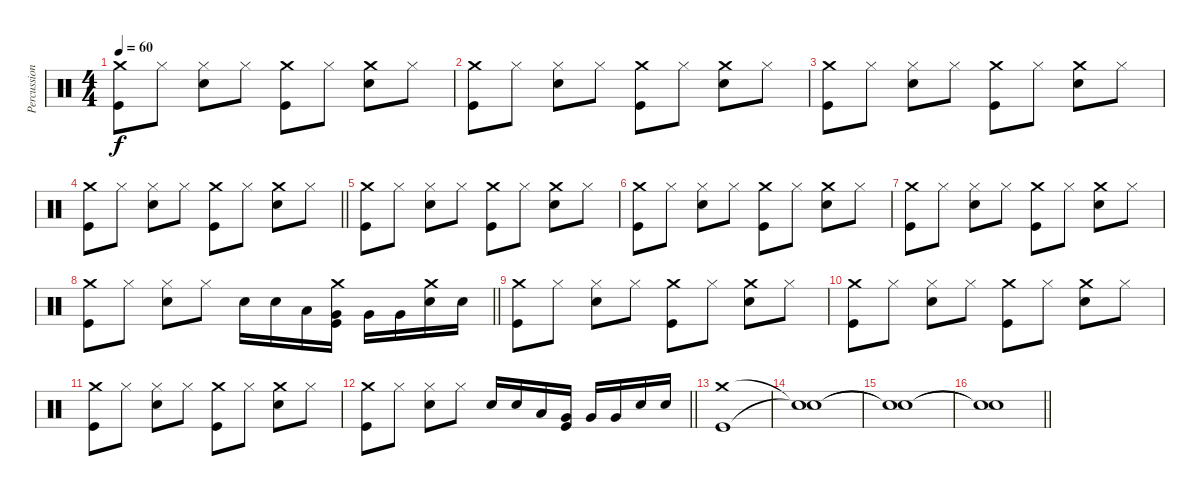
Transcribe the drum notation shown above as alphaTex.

\track ("Percussion" "Percussion") {instrument percussion}
\staff {score}
\articulation defaults
\ts (4 4)
\tempo 60
\clef neutral
\ks c
("Crash medium (hit)" "Kick (hit)").8{dy f} "Hi-Hat (closed)".8 ("Hi-Hat (closed)" "Snare (hit) 2").8 "Hi-Hat (closed)".8 ("Crash medium (hit)" "Kick (hit)").8 "Hi-Hat (closed)".8 ("Crash medium (hit)" "Snare (hit) 2").8 "Hi-Hat (closed)".8 |
("Crash medium (hit)" "Kick (hit)").8 "Hi-Hat (closed)".8 ("Hi-Hat (closed)" "Snare (hit) 2").8 "Hi-Hat (closed)".8 ("Crash medium (hit)" "Kick (hit)").8 "Hi-Hat (closed)".8 ("Crash medium (hit)" "Snare (hit) 2").8 "Hi-Hat (closed)".8 |
("Crash medium (hit)" "Kick (hit)").8 "Hi-Hat (closed)".8 ("Hi-Hat (closed)" "Snare (hit) 2").8 "Hi-Hat (closed)".8 ("Crash medium (hit)" "Kick (hit)").8 "Hi-Hat (closed)".8 ("Crash medium (hit)" "Snare (hit) 2").8 "Hi-Hat (closed)".8 |
\barLineRight lightlight
("Crash medium (hit)" "Kick (hit)").8 "Hi-Hat (closed)".8 ("Hi-Hat (closed)" "Snare (hit) 2").8 "Hi-Hat (closed)".8 ("Crash medium (hit)" "Kick (hit)").8 "Hi-Hat (closed)".8 ("Crash medium (hit)" "Snare (hit) 2").8 "Hi-Hat (closed)".8 |
("Crash medium (hit)" "Kick (hit)").8 "Hi-Hat (closed)".8 ("Hi-Hat (closed)" "Snare (hit) 2").8 "Hi-Hat (closed)".8 ("Crash medium (hit)" "Kick (hit)").8 "Hi-Hat (closed)".8 ("Crash medium (hit)" "Snare (hit) 2").8 "Hi-Hat (closed)".8 |
("Crash medium (hit)" "Kick (hit)").8 "Hi-Hat (closed)".8 ("Hi-Hat (closed)" "Snare (hit) 2").8 "Hi-Hat (closed)".8 ("Crash medium (hit)" "Kick (hit)").8 "Hi-Hat (closed)".8 ("Crash medium (hit)" "Snare (hit) 2").8 "Hi-Hat (closed)".8 |
("Crash medium (hit)" "Kick (hit)").8 "Hi-Hat (closed)".8 ("Hi-Hat (closed)" "Snare (hit) 2").8 "Hi-Hat (closed)".8 ("Crash medium (hit)" "Kick (hit)").8 "Hi-Hat (closed)".8 ("Crash medium (hit)" "Snare (hit) 2").8 "Hi-Hat (closed)".8 |
\barLineRight lightlight
("Crash medium (hit)" "Kick (hit)").8 "Hi-Hat (closed)".8 ("Hi-Hat (closed)" "Snare (hit) 2").8 "Hi-Hat (closed)".8 "Snare (hit) 2".16 "Snare (hit) 2".16 "Low Tom (hit)".16 ("Crash medium (hit)" "Very Low Tom (hit)" "Kick (hit)").16 "Very Low Tom (hit)".16 "Very Low Tom (hit)".16 ("Crash medium (hit)" "Snare (hit) 2").16 "Snare (hit) 2".16 |
("Crash medium (hit)" "Kick (hit)").8 "Hi-Hat (closed)".8 ("Hi-Hat (closed)" "Snare (hit) 2").8 "Hi-Hat (closed)".8 ("Crash medium (hit)" "Kick (hit)").8 "Hi-Hat (closed)".8 ("Crash medium (hit)" "Snare (hit) 2").8 "Hi-Hat (closed)".8 |
("Crash medium (hit)" "Kick (hit)").8 "Hi-Hat (closed)".8 ("Hi-Hat (closed)" "Snare (hit) 2").8 "Hi-Hat (closed)".8 ("Crash medium (hit)" "Kick (hit)").8 "Hi-Hat (closed)".8 ("Crash medium (hit)" "Snare (hit) 2").8 "Hi-Hat (closed)".8 |
("Crash medium (hit)" "Kick (hit)").8 "Hi-Hat (closed)".8 ("Hi-Hat (closed)" "Snare (hit) 2").8 "Hi-Hat (closed)".8 ("Crash medium (hit)" "Kick (hit)").8 "Hi-Hat (closed)".8 ("Crash medium (hit)" "Snare (hit) 2").8 "Hi-Hat (closed)".8 |
\barLineRight lightlight
("Crash medium (hit)" "Kick (hit)").8 "Hi-Hat (closed)".8 ("Hi-Hat (closed)" "Snare (hit) 2").8 "Hi-Hat (closed)".8 "Snare (hit) 2".16 "Snare (hit) 2".16 "Low Tom (hit)".16 ("Very Low Tom (hit)" "Kick (hit)").16 "Very Low Tom (hit)".16 "Very Low Tom (hit)".16 "Snare (hit) 2".16 "Snare (hit) 2".16 |
("Crash medium (hit)" "Kick (hit)").1 |
("Snare (hit)"{t} "Snare (hit)"{t}).1 |
("Snare (hit)"{t} "Snare (hit)"{t}).1 |
\barLineRight lightlight
("Snare (hit)"{t} "Snare (hit)"{t}).1
